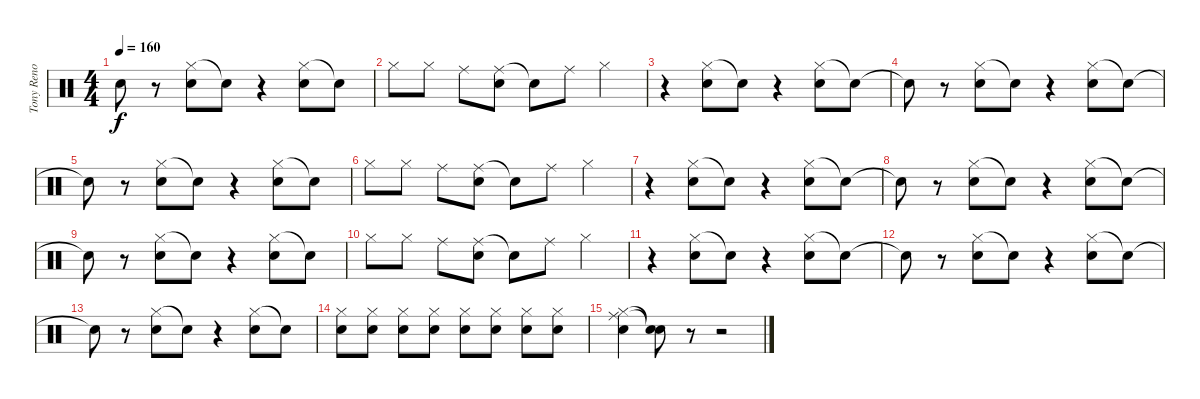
\track ("Tony Reno" "Tony Reno") {instrument percussion}
\staff {score}
\articulation defaults
\ts (4 4)
\tempo 160
\clef neutral
\ks c "Snare (hit)"{t}.8{dy f}
r.8 ("Hi-Hat (closed)" "Snare (hit) 2").8 "Snare (hit)"{t}.8 r.4 ("Hi-Hat (closed)" "Snare (hit) 2").8 "Snare (hit)"{t}.8 |
"Hi-Hat (closed)".8 "Hi-Hat (closed)".8 "Ride (middle)".8 ("Ride (middle)" "Snare (hit) 2").8 "Snare (hit)"{t}.8 "Ride (middle)".8 "Hi-Hat (closed)".4 |
r.4 ("Hi-Hat (closed)" "Snare (hit) 2").8 "Snare (hit)"{t}.8 r.4 ("Hi-Hat (closed)" "Snare (hit) 2").8 "Snare (hit)"{t}.8 |
"Snare (hit)"{t}.8 r.8 ("Hi-Hat (closed)" "Snare (hit) 2").8 "Snare (hit)"{t}.8 r.4 ("Hi-Hat (closed)" "Snare (hit) 2").8 "Snare (hit)"{t}.8 |
"Snare (hit)"{t}.8 r.8 ("Hi-Hat (closed)" "Snare (hit) 2").8 "Snare (hit)"{t}.8 r.4 ("Hi-Hat (closed)" "Snare (hit) 2").8 "Snare (hit)"{t}.8 |
"Hi-Hat (closed)".8 "Hi-Hat (closed)".8 "Ride (middle)".8 ("Ride (middle)" "Snare (hit) 2").8 "Snare (hit)"{t}.8 "Ride (middle)".8 "Hi-Hat (closed)".4 |
r.4 ("Hi-Hat (closed)" "Snare (hit) 2").8 "Snare (hit)"{t}.8 r.4 ("Hi-Hat (closed)" "Snare (hit) 2").8 "Snare (hit)"{t}.8 |
"Snare (hit)"{t}.8 r.8 ("Hi-Hat (closed)" "Snare (hit) 2").8 "Snare (hit)"{t}.8 r.4 ("Hi-Hat (closed)" "Snare (hit) 2").8 "Snare (hit)"{t}.8 |
"Snare (hit)"{t}.8 r.8 ("Hi-Hat (closed)" "Snare (hit) 2").8 "Snare (hit)"{t}.8 r.4 ("Hi-Hat (closed)" "Snare (hit) 2").8 "Snare (hit)"{t}.8 |
"Hi-Hat (closed)".8 "Hi-Hat (closed)".8 "Ride (middle)".8 ("Ride (middle)" "Snare (hit) 2").8 "Snare (hit)"{t}.8 "Ride (middle)".8 "Hi-Hat (closed)".4 |
r.4 ("Hi-Hat (closed)" "Snare (hit) 2").8 "Snare (hit)"{t}.8 r.4 ("Hi-Hat (closed)" "Snare (hit) 2").8 "Snare (hit)"{t}.8 |
"Snare (hit)"{t}.8 r.8 ("Hi-Hat (closed)" "Snare (hit) 2").8 "Snare (hit)"{t}.8 r.4 ("Hi-Hat (closed)" "Snare (hit) 2").8 "Snare (hit)"{t}.8 |
"Snare (hit)"{t}.8 r.8 ("Hi-Hat (closed)" "Snare (hit) 2").8 "Snare (hit)"{t}.8 r.4 ("Hi-Hat (closed)" "Snare (hit) 2").8 "Snare (hit)"{t}.8 |
("Hi-Hat (closed)" "Snare (hit) 2").8 ("Hi-Hat (closed)" "Snare (hit) 2").8 ("Hi-Hat (closed)" "Snare (hit) 2").8 ("Hi-Hat (closed)" "Snare (hit) 2").8 ("Hi-Hat (closed)" "Snare (hit) 2").8 ("Hi-Hat (closed)" "Snare (hit) 2").8 ("Hi-Hat (closed)" "Snare (hit) 2").8 ("Hi-Hat (closed)" "Snare (hit) 2").8 |
("Ride (middle)" "Hi-Hat (closed)" "Snare (hit) 2").4 ("Snare (hit)"{t} "Snare (hit)"{t}).8 r.8 r.2
